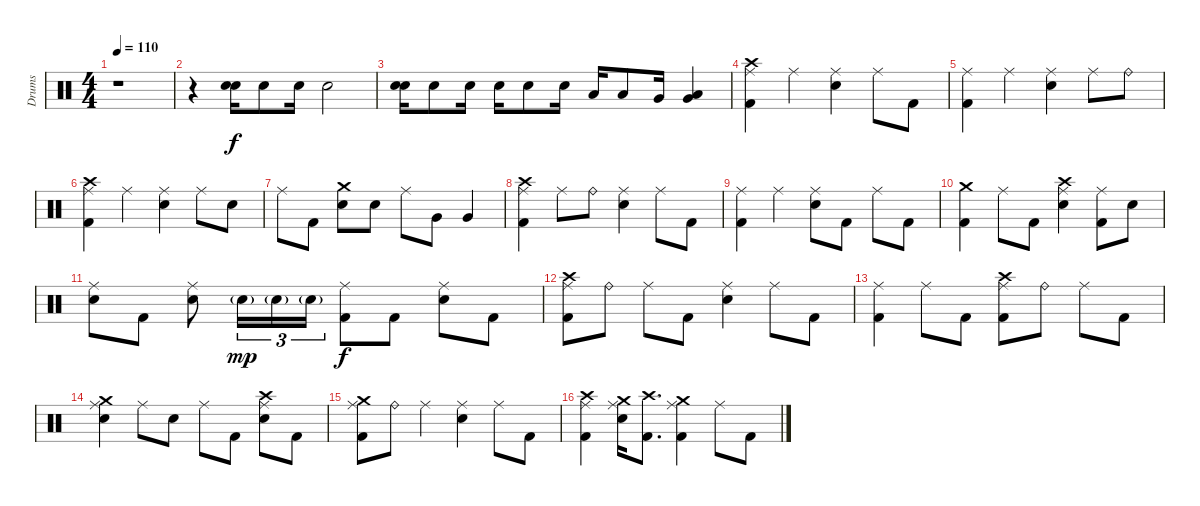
\track ("Drums" "Drums") {instrument percussion}
\staff {score}
\articulation defaults
\ts (4 4)
\tempo 110
\clef neutral
\ks c
r.1{dy f} |
r.4 ("Electric Snare (hit)" "Snare (hit) 2").16 "Electric Snare (hit)".8 "Electric Snare (hit)".16 "Electric Snare (hit)".2 |
("Electric Snare (hit)" "Snare (hit) 2").16 "Electric Snare (hit)".8 "Electric Snare (hit)".16 "Electric Snare (hit)".16 "Electric Snare (hit)".8 "Electric Snare (hit)".16 "Low Tom (hit)".16 "Low Tom (hit)".8 "Very Low Tom (hit)".16 ("Very Low Tom (hit)" "Low Floor Tom (hit)").4 |
("Crash high (hit)" "Ride (middle)" "Kick (hit) 2").4 "Ride (middle)".4 ("Ride (middle)" "Electric Snare (hit)").4 "Ride (middle)".8 "Kick (hit) 2".8 |
("Ride (middle)" "Kick (hit) 2").4 "Ride (middle)".4 ("Ride (middle)" "Electric Snare (hit)").4 "Ride (middle)".8 "Ride (bell)".8 |
("Crash high (hit)" "Ride (middle)" "Kick (hit) 2").4 "Ride (middle)".4 ("Ride (middle)" "Electric Snare (hit)").4 "Ride (middle)".8 "Electric Snare (hit)".8 |
"Ride (middle)".8 "Kick (hit) 2".8 ("Crash medium (hit)" "Electric Snare (hit)").8 "Electric Snare (hit)".8 "Ride (middle)".8 "Very Low Tom (hit)".8 "Very Low Tom (hit)".4 |
("Crash high (hit)" "Ride (middle)" "Kick (hit) 2").4 "Ride (middle)".8 "Ride (bell)".8 ("Ride (middle)" "Electric Snare (hit)").4 "Ride (middle)".8 "Kick (hit) 2".8 |
("Ride (middle)" "Kick (hit) 2").4 "Ride (middle)".4 ("Ride (middle)" "Electric Snare (hit)").8 "Kick (hit) 2".8 "Ride (middle)".8 "Kick (hit) 2".8 |
("Crash medium (hit)" "Kick (hit) 2").4 "Ride (middle)".8 "Kick (hit) 2".8 ("Crash high (hit)" "Ride (middle)" "Electric Snare (hit)").4 ("Ride (middle)" "Kick (hit) 2").8 "Electric Snare (hit)".8 |
("Ride (middle)" "Electric Snare (hit)").8 "Kick (hit) 2".8 ("Ride (middle)" "Electric Snare (hit)").8 "Electric Snare (hit)"{g}.16{tu (3 2) dy mp} "Electric Snare (hit)"{g}.16{tu (3 2)} "Electric Snare (hit)"{g}.16{tu (3 2)} ("Ride (middle)" "Kick (hit) 2").8{dy f} "Kick (hit) 2".8 ("Ride (middle)" "Electric Snare (hit)").8 "Kick (hit) 2".8 |
("Crash high (hit)" "Ride (middle)" "Kick (hit) 2").8 "Ride (bell)".8 "Ride (middle)".8 "Kick (hit) 2".8 ("Ride (middle)" "Electric Snare (hit)").4 "Ride (middle)".8 "Kick (hit) 2".8 |
("Ride (middle)" "Kick (hit) 2").4 "Ride (middle)".8 "Kick (hit) 2".8 ("Crash high (hit)" "Ride (middle)" "Kick (hit) 2").8 "Ride (bell)".8 "Ride (middle)".8 "Kick (hit) 2".8 |
("Crash medium (hit)" "Ride (middle)" "Electric Snare (hit)").4 "Ride (middle)".8 "Electric Snare (hit)".8 "Ride (middle)".8 "Kick (hit) 2".8 ("Crash high (hit)" "Ride (middle)" "Electric Snare (hit)").8 "Kick (hit) 2".8 |
("Crash medium (hit)" "Ride (middle)" "Kick (hit) 2").8 "Ride (bell)".8 "Ride (middle)".4 ("Ride (middle)" "Electric Snare (hit)").4 "Ride (middle)".8 "Kick (hit) 2".8 |
("Crash high (hit)" "Ride (middle)" "Kick (hit) 2").4 ("Crash medium (hit)" "Ride (middle)" "Electric Snare (hit)").16 ("Crash high (hit)" "Kick (hit) 2").8{d} ("Crash medium (hit)" "Ride (middle)" "Kick (hit) 2").4 "Ride (middle)".8 "Kick (hit) 2".8
